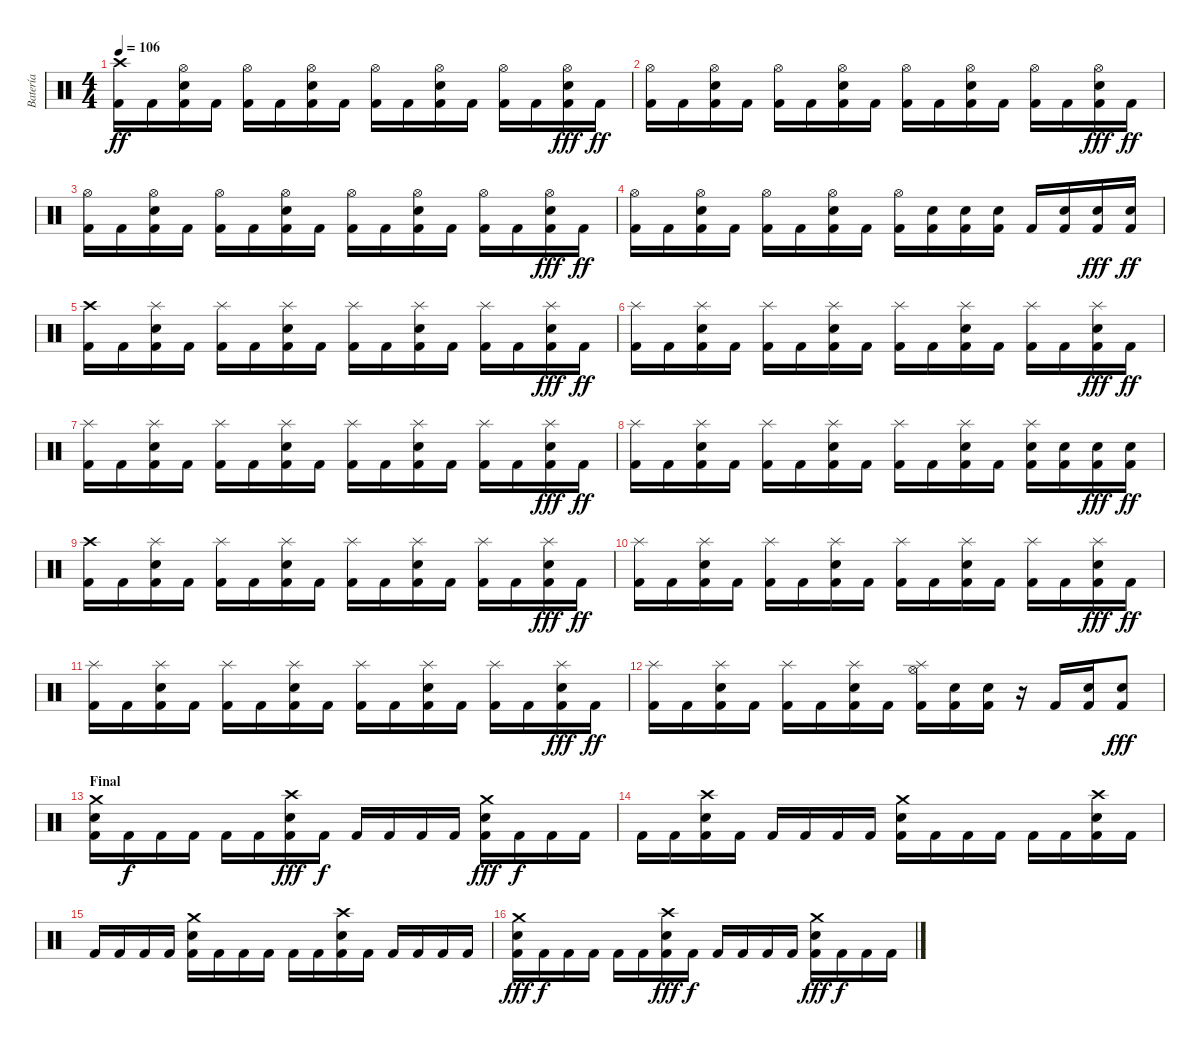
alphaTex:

\track ("Batería" "Batería") {instrument percussion}
\staff {score}
\articulation defaults
\ts (4 4)
\tempo 106
\clef neutral
\ks c
("Crash high (hit)" "Kick (hit) 2").16{dy ff} "Kick (hit) 2".16 ("Hi-Hat (open)" "Electric Snare (hit)" "Kick (hit) 2").16 "Kick (hit) 2".16 ("Hi-Hat (open)" "Kick (hit) 2").16 "Kick (hit) 2".16 ("Hi-Hat (open)" "Electric Snare (hit)" "Kick (hit) 2").16 "Kick (hit) 2".16 ("Hi-Hat (open)" "Kick (hit) 2").16 "Kick (hit) 2".16 ("Hi-Hat (open)" "Electric Snare (hit)" "Kick (hit) 2").16 "Kick (hit) 2".16 ("Hi-Hat (open)" "Kick (hit) 2").16 "Kick (hit) 2".16 ("Hi-Hat (open)" "Electric Snare (hit)" "Kick (hit) 2").16{dy fff} "Kick (hit) 2".16{dy ff} |
("Hi-Hat (open)" "Kick (hit) 2").16 "Kick (hit) 2".16 ("Hi-Hat (open)" "Electric Snare (hit)" "Kick (hit) 2").16 "Kick (hit) 2".16 ("Hi-Hat (open)" "Kick (hit) 2").16 "Kick (hit) 2".16 ("Hi-Hat (open)" "Electric Snare (hit)" "Kick (hit) 2").16 "Kick (hit) 2".16 ("Hi-Hat (open)" "Kick (hit) 2").16 "Kick (hit) 2".16 ("Hi-Hat (open)" "Electric Snare (hit)" "Kick (hit) 2").16 "Kick (hit) 2".16 ("Hi-Hat (open)" "Kick (hit) 2").16 "Kick (hit) 2".16 ("Hi-Hat (open)" "Electric Snare (hit)" "Kick (hit) 2").16{dy fff} "Kick (hit) 2".16{dy ff} |
("Hi-Hat (open)" "Kick (hit) 2").16 "Kick (hit) 2".16 ("Hi-Hat (open)" "Electric Snare (hit)" "Kick (hit) 2").16 "Kick (hit) 2".16 ("Hi-Hat (open)" "Kick (hit) 2").16 "Kick (hit) 2".16 ("Hi-Hat (open)" "Electric Snare (hit)" "Kick (hit) 2").16 "Kick (hit) 2".16 ("Hi-Hat (open)" "Kick (hit) 2").16 "Kick (hit) 2".16 ("Hi-Hat (open)" "Electric Snare (hit)" "Kick (hit) 2").16 "Kick (hit) 2".16 ("Hi-Hat (open)" "Kick (hit) 2").16 "Kick (hit) 2".16 ("Hi-Hat (open)" "Electric Snare (hit)" "Kick (hit) 2").16{dy fff} "Kick (hit) 2".16{dy ff} |
("Hi-Hat (open)" "Kick (hit) 2").16 "Kick (hit) 2".16 ("Hi-Hat (open)" "Electric Snare (hit)" "Kick (hit) 2").16 "Kick (hit) 2".16 ("Hi-Hat (open)" "Kick (hit) 2").16 "Kick (hit) 2".16 ("Hi-Hat (open)" "Electric Snare (hit)" "Kick (hit) 2").16 "Kick (hit) 2".16 ("Hi-Hat (open)" "Kick (hit) 2").16 ("Electric Snare (hit)" "Kick (hit) 2").16 ("Electric Snare (hit)" "Kick (hit) 2").16 ("Electric Snare (hit)" "Kick (hit) 2").16 "Kick (hit) 2".16 ("Electric Snare (hit)" "Kick (hit) 2").16 ("Electric Snare (hit)" "Kick (hit) 2").16{dy fff} ("Electric Snare (hit)" "Kick (hit) 2").16{dy ff} |
("Crash high (hit)" "Kick (hit) 2").16 "Kick (hit) 2".16 ("Splash (hit)" "Electric Snare (hit)" "Kick (hit) 2").16 "Kick (hit) 2".16 ("Splash (hit)" "Kick (hit) 2").16 "Kick (hit) 2".16 ("Splash (hit)" "Electric Snare (hit)" "Kick (hit) 2").16 "Kick (hit) 2".16 ("Splash (hit)" "Kick (hit) 2").16 "Kick (hit) 2".16 ("Splash (hit)" "Electric Snare (hit)" "Kick (hit) 2").16 "Kick (hit) 2".16 ("Splash (hit)" "Kick (hit) 2").16 "Kick (hit) 2".16 ("Splash (hit)" "Electric Snare (hit)" "Kick (hit) 2").16{dy fff} "Kick (hit) 2".16{dy ff} |
("Splash (hit)" "Kick (hit) 2").16 "Kick (hit) 2".16 ("Splash (hit)" "Electric Snare (hit)" "Kick (hit) 2").16 "Kick (hit) 2".16 ("Splash (hit)" "Kick (hit) 2").16 "Kick (hit) 2".16 ("Splash (hit)" "Electric Snare (hit)" "Kick (hit) 2").16 "Kick (hit) 2".16 ("Splash (hit)" "Kick (hit) 2").16 "Kick (hit) 2".16 ("Splash (hit)" "Electric Snare (hit)" "Kick (hit) 2").16 "Kick (hit) 2".16 ("Splash (hit)" "Kick (hit) 2").16 "Kick (hit) 2".16 ("Splash (hit)" "Electric Snare (hit)" "Kick (hit) 2").16{dy fff} "Kick (hit) 2".16{dy ff} |
("Splash (hit)" "Kick (hit) 2").16 "Kick (hit) 2".16 ("Splash (hit)" "Electric Snare (hit)" "Kick (hit) 2").16 "Kick (hit) 2".16 ("Splash (hit)" "Kick (hit) 2").16 "Kick (hit) 2".16 ("Splash (hit)" "Electric Snare (hit)" "Kick (hit) 2").16 "Kick (hit) 2".16 ("Splash (hit)" "Kick (hit) 2").16 "Kick (hit) 2".16 ("Splash (hit)" "Electric Snare (hit)" "Kick (hit) 2").16 "Kick (hit) 2".16 ("Splash (hit)" "Kick (hit) 2").16 "Kick (hit) 2".16 ("Splash (hit)" "Electric Snare (hit)" "Kick (hit) 2").16{dy fff} "Kick (hit) 2".16{dy ff} |
("Splash (hit)" "Kick (hit) 2").16 "Kick (hit) 2".16 ("Splash (hit)" "Electric Snare (hit)" "Kick (hit) 2").16 "Kick (hit) 2".16 ("Splash (hit)" "Kick (hit) 2").16 "Kick (hit) 2".16 ("Splash (hit)" "Electric Snare (hit)" "Kick (hit) 2").16 "Kick (hit) 2".16 ("Splash (hit)" "Kick (hit) 2").16 "Kick (hit) 2".16 ("Splash (hit)" "Electric Snare (hit)" "Kick (hit) 2").16 "Kick (hit) 2".16 ("Splash (hit)" "Electric Snare (hit)" "Kick (hit) 2").16 ("Electric Snare (hit)" "Kick (hit) 2").16 ("Electric Snare (hit)" "Kick (hit) 2").16{dy fff} ("Electric Snare (hit)" "Kick (hit) 2").16{dy ff} |
("Crash high (hit)" "Kick (hit) 2").16 "Kick (hit) 2".16 ("Splash (hit)" "Electric Snare (hit)" "Kick (hit) 2").16 "Kick (hit) 2".16 ("Splash (hit)" "Kick (hit) 2").16 "Kick (hit) 2".16 ("Splash (hit)" "Electric Snare (hit)" "Kick (hit) 2").16 "Kick (hit) 2".16 ("Splash (hit)" "Kick (hit) 2").16 "Kick (hit) 2".16 ("Splash (hit)" "Electric Snare (hit)" "Kick (hit) 2").16 "Kick (hit) 2".16 ("Splash (hit)" "Kick (hit) 2").16 "Kick (hit) 2".16 ("Splash (hit)" "Electric Snare (hit)" "Kick (hit) 2").16{dy fff} "Kick (hit) 2".16{dy ff} |
("Splash (hit)" "Kick (hit) 2").16 "Kick (hit) 2".16 ("Splash (hit)" "Electric Snare (hit)" "Kick (hit) 2").16 "Kick (hit) 2".16 ("Splash (hit)" "Kick (hit) 2").16 "Kick (hit) 2".16 ("Splash (hit)" "Electric Snare (hit)" "Kick (hit) 2").16 "Kick (hit) 2".16 ("Splash (hit)" "Kick (hit) 2").16 "Kick (hit) 2".16 ("Splash (hit)" "Electric Snare (hit)" "Kick (hit) 2").16 "Kick (hit) 2".16 ("Splash (hit)" "Kick (hit) 2").16 "Kick (hit) 2".16 ("Splash (hit)" "Electric Snare (hit)" "Kick (hit) 2").16{dy fff} "Kick (hit) 2".16{dy ff} |
("Splash (hit)" "Kick (hit) 2").16 "Kick (hit) 2".16 ("Splash (hit)" "Electric Snare (hit)" "Kick (hit) 2").16 "Kick (hit) 2".16 ("Splash (hit)" "Kick (hit) 2").16 "Kick (hit) 2".16 ("Splash (hit)" "Electric Snare (hit)" "Kick (hit) 2").16 "Kick (hit) 2".16 ("Splash (hit)" "Kick (hit) 2").16 "Kick (hit) 2".16 ("Splash (hit)" "Electric Snare (hit)" "Kick (hit) 2").16 "Kick (hit) 2".16 ("Splash (hit)" "Kick (hit) 2").16 "Kick (hit) 2".16 ("Splash (hit)" "Electric Snare (hit)" "Kick (hit) 2").16{dy fff} "Kick (hit) 2".16{dy ff} |
("Splash (hit)" "Kick (hit) 2").16 "Kick (hit) 2".16 ("Splash (hit)" "Electric Snare (hit)" "Kick (hit) 2").16 "Kick (hit) 2".16 ("Splash (hit)" "Kick (hit) 2").16 "Kick (hit) 2".16 ("Splash (hit)" "Electric Snare (hit)" "Kick (hit) 2").16 "Kick (hit) 2".16 ("Splash (hit)" "Hi-Hat (open)" "Kick (hit) 2").16 ("Electric Snare (hit)" "Kick (hit) 2").16 ("Electric Snare (hit)" "Kick (hit) 2").16 r.16 "Kick (hit) 2".16 ("Electric Snare (hit)" "Kick (hit) 2").16 ("Electric Snare (hit)" "Kick (hit) 2").8{dy fff} |
\section ("" "Final")
("Crash medium (hit)" "Electric Snare (hit)" "Kick (hit) 2").16{volume 10} "Kick (hit) 2".16{dy f} "Kick (hit) 2".16 "Kick (hit) 2".16 "Kick (hit) 2".16 "Kick (hit) 2".16 ("Crash high (hit)" "Electric Snare (hit)" "Kick (hit) 2").16{dy fff} "Kick (hit) 2".16{dy f} "Kick (hit) 2".16 "Kick (hit) 2".16 "Kick (hit) 2".16 "Kick (hit) 2".16 ("Crash medium (hit)" "Electric Snare (hit)" "Kick (hit) 2").16{dy fff} "Kick (hit) 2".16{dy f} "Kick (hit) 2".16 "Kick (hit) 2".16 |
"Kick (hit) 2".16 "Kick (hit) 2".16 ("Crash high (hit)" "Electric Snare (hit)" "Kick (hit) 2").16 "Kick (hit) 2".16 "Kick (hit) 2".16 "Kick (hit) 2".16 "Kick (hit) 2".16 "Kick (hit) 2".16 ("Crash medium (hit)" "Electric Snare (hit)" "Kick (hit) 2").16 "Kick (hit) 2".16 "Kick (hit) 2".16 "Kick (hit) 2".16 "Kick (hit) 2".16 "Kick (hit) 2".16 ("Crash high (hit)" "Electric Snare (hit)" "Kick (hit) 2").16 "Kick (hit) 2".16 |
"Kick (hit) 2".16 "Kick (hit) 2".16 "Kick (hit) 2".16 "Kick (hit) 2".16 ("Crash medium (hit)" "Electric Snare (hit)" "Kick (hit) 2").16 "Kick (hit) 2".16 "Kick (hit) 2".16 "Kick (hit) 2".16 "Kick (hit) 2".16 "Kick (hit) 2".16 ("Crash high (hit)" "Electric Snare (hit)" "Kick (hit) 2").16 "Kick (hit) 2".16 "Kick (hit) 2".16 "Kick (hit) 2".16 "Kick (hit) 2".16 "Kick (hit) 2".16 |
("Crash medium (hit)" "Electric Snare (hit)" "Kick (hit) 2").16{dy fff} "Kick (hit) 2".16{dy f} "Kick (hit) 2".16 "Kick (hit) 2".16 "Kick (hit) 2".16 "Kick (hit) 2".16 ("Crash high (hit)" "Electric Snare (hit)" "Kick (hit) 2").16{dy fff} "Kick (hit) 2".16{dy f} "Kick (hit) 2".16 "Kick (hit) 2".16 "Kick (hit) 2".16 "Kick (hit) 2".16 ("Crash medium (hit)" "Electric Snare (hit)" "Kick (hit) 2").16{dy fff} "Kick (hit) 2".16{dy f} "Kick (hit) 2".16 "Kick (hit) 2".16
